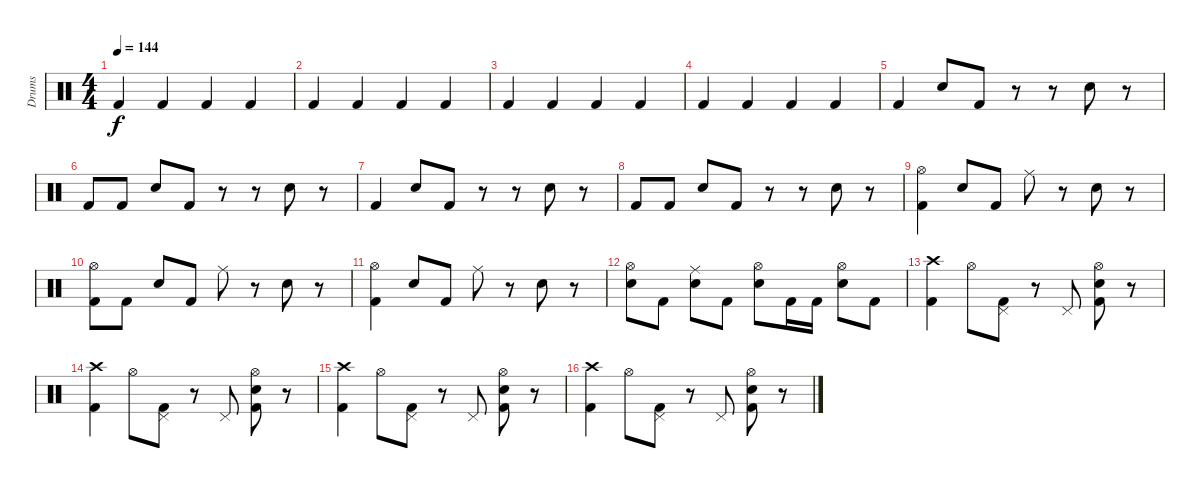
\track ("Drums" "Drums") {instrument percussion}
\staff {score}
\articulation defaults
\ts (4 4)
\tempo 144
\clef neutral
\ks c "Kick (hit) 2".4{dy f} "Kick (hit) 2".4 "Kick (hit) 2".4 "Kick (hit) 2".4
|
"Kick (hit) 2".4 "Kick (hit) 2".4 "Kick (hit) 2".4 "Kick (hit) 2".4 |
"Kick (hit) 2".4 "Kick (hit) 2".4 "Kick (hit) 2".4 "Kick (hit) 2".4 |
"Kick (hit) 2".4 "Kick (hit) 2".4 "Kick (hit) 2".4 "Kick (hit) 2".4 |
"Kick (hit) 2".4 "Electric Snare (hit)".8 "Kick (hit) 2".8 r.8 r.8 "Electric Snare (hit)".8 r.8 |
"Kick (hit) 2".8 "Kick (hit) 2".8 "Electric Snare (hit)".8 "Kick (hit) 2".8 r.8 r.8 "Electric Snare (hit)".8 r.8 |
"Kick (hit) 2".4 "Electric Snare (hit)".8 "Kick (hit) 2".8 r.8 r.8 "Electric Snare (hit)".8 r.8 |
"Kick (hit) 2".8 "Kick (hit) 2".8 "Electric Snare (hit)".8 "Kick (hit) 2".8 r.8 r.8 "Electric Snare (hit)".8 r.8 |
("Hi-Hat (open)" "Kick (hit) 2").4 "Electric Snare (hit)".8 "Kick (hit) 2".8 "Ride (middle)".8 r.8 "Electric Snare (hit)".8 r.8 |
("Hi-Hat (open)" "Kick (hit) 2").8 "Kick (hit) 2".8 "Electric Snare (hit)".8 "Kick (hit) 2".8 "Ride (middle)".8 r.8 "Electric Snare (hit)".8 r.8 |
("Hi-Hat (open)" "Kick (hit) 2").4 "Electric Snare (hit)".8 "Kick (hit) 2".8 "Ride (middle)".8 r.8 "Electric Snare (hit)".8 r.8 |
("Hi-Hat (open)" "Electric Snare (hit)").8 "Kick (hit) 2".8 ("Ride (middle)" "Electric Snare (hit)").8 "Kick (hit) 2".8 ("Hi-Hat (open)" "Electric Snare (hit)").8 "Kick (hit) 2".16 "Kick (hit) 2".16 ("Hi-Hat (open)" "Electric Snare (hit)").8 "Kick (hit) 2".8 |
("Crash high (hit)" "Kick (hit) 2").4 "Hi-Hat (open)".8 ("Pedal Hi-Hat (hit)" "Kick (hit) 2").8 r.8 "Pedal Hi-Hat (hit)".8 ("Hi-Hat (open)" "Electric Snare (hit)" "Kick (hit) 2").8 r.8 |
("Crash high (hit)" "Kick (hit) 2").4 "Hi-Hat (open)".8 ("Pedal Hi-Hat (hit)" "Kick (hit) 2").8 r.8 "Pedal Hi-Hat (hit)".8 ("Hi-Hat (open)" "Electric Snare (hit)" "Kick (hit) 2").8 r.8 |
("Crash high (hit)" "Kick (hit) 2").4 "Hi-Hat (open)".8 ("Pedal Hi-Hat (hit)" "Kick (hit) 2").8 r.8 "Pedal Hi-Hat (hit)".8 ("Hi-Hat (open)" "Electric Snare (hit)" "Kick (hit) 2").8 r.8 |
("Crash high (hit)" "Kick (hit) 2").4 "Hi-Hat (open)".8 ("Pedal Hi-Hat (hit)" "Kick (hit) 2").8 r.8 "Pedal Hi-Hat (hit)".8 ("Hi-Hat (open)" "Electric Snare (hit)" "Kick (hit) 2").8 r.8
